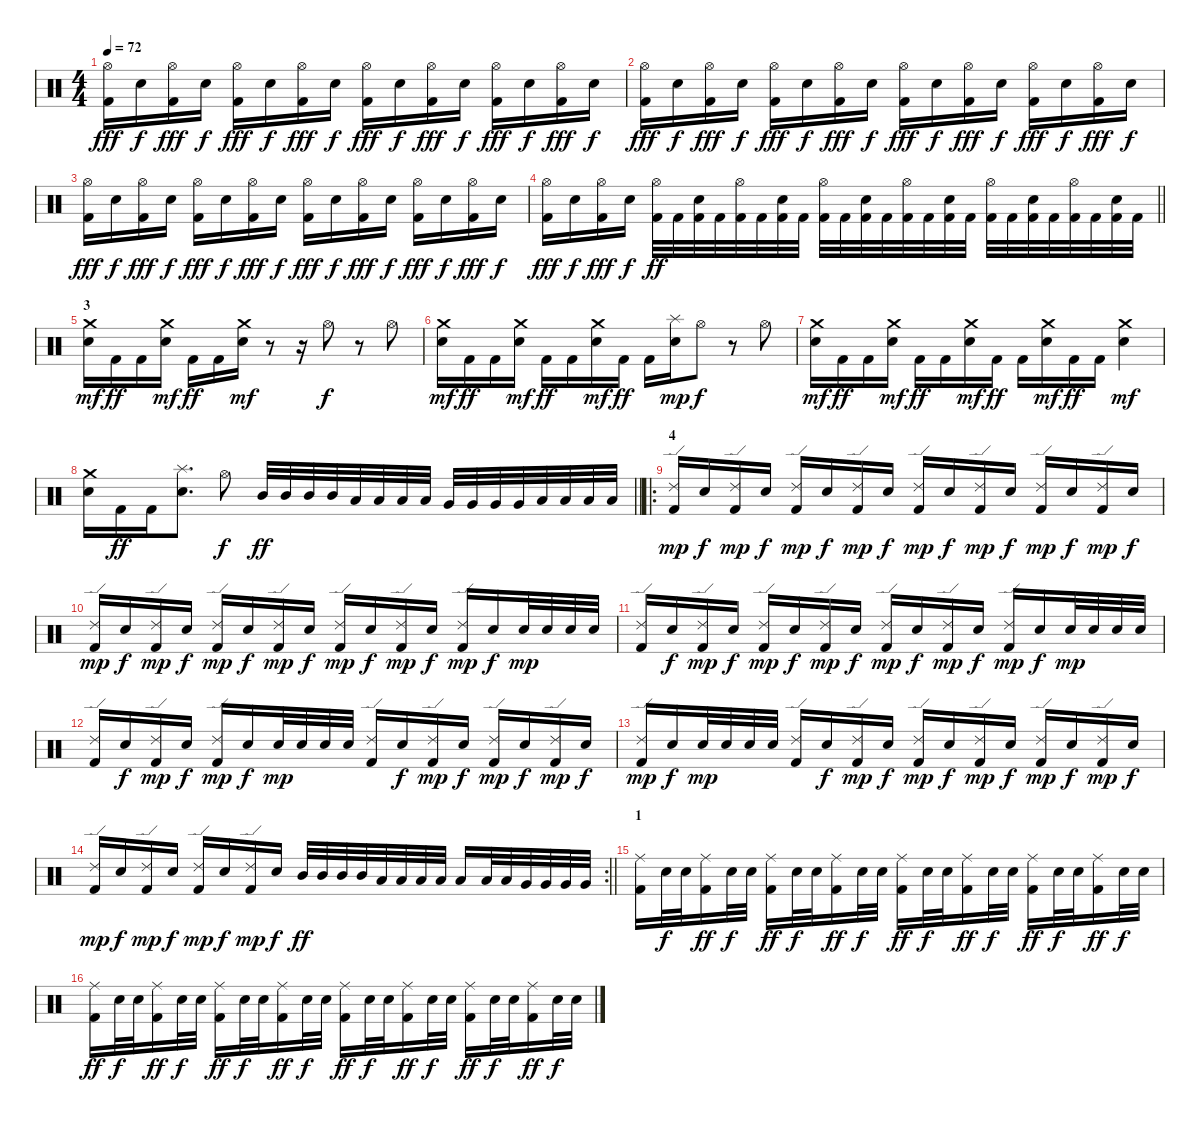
\track "" {instrument percussion}
\staff {score}
\articulation defaults
\ts (4 4)
\tempo 72
\clef neutral
\ks c
("Hi-Hat (open)" "Kick (hit) 2").16{dy fff} "Snare (hit) 2".16{dy f} ("Hi-Hat (open)" "Kick (hit) 2").16{dy fff} "Snare (hit) 2".16{dy f} ("Hi-Hat (open)" "Kick (hit) 2").16{dy fff} "Snare (hit) 2".16{dy f} ("Hi-Hat (open)" "Kick (hit) 2").16{dy fff} "Snare (hit) 2".16{dy f} ("Hi-Hat (open)" "Kick (hit) 2").16{dy fff} "Snare (hit) 2".16{dy f} ("Hi-Hat (open)" "Kick (hit) 2").16{dy fff} "Snare (hit) 2".16{dy f} ("Hi-Hat (open)" "Kick (hit) 2").16{dy fff} "Snare (hit) 2".16{dy f} ("Hi-Hat (open)" "Kick (hit) 2").16{dy fff} "Snare (hit) 2".16{dy f} |
("Hi-Hat (open)" "Kick (hit) 2").16{dy fff} "Snare (hit) 2".16{dy f} ("Hi-Hat (open)" "Kick (hit) 2").16{dy fff} "Snare (hit) 2".16{dy f} ("Hi-Hat (open)" "Kick (hit) 2").16{dy fff} "Snare (hit) 2".16{dy f} ("Hi-Hat (open)" "Kick (hit) 2").16{dy fff} "Snare (hit) 2".16{dy f} ("Hi-Hat (open)" "Kick (hit) 2").16{dy fff} "Snare (hit) 2".16{dy f} ("Hi-Hat (open)" "Kick (hit) 2").16{dy fff} "Snare (hit) 2".16{dy f} ("Hi-Hat (open)" "Kick (hit) 2").16{dy fff} "Snare (hit) 2".16{dy f} ("Hi-Hat (open)" "Kick (hit) 2").16{dy fff} "Snare (hit) 2".16{dy f} |
("Hi-Hat (open)" "Kick (hit) 2").16{dy fff} "Snare (hit) 2".16{dy f} ("Hi-Hat (open)" "Kick (hit) 2").16{dy fff} "Snare (hit) 2".16{dy f} ("Hi-Hat (open)" "Kick (hit) 2").16{dy fff} "Snare (hit) 2".16{dy f} ("Hi-Hat (open)" "Kick (hit) 2").16{dy fff} "Snare (hit) 2".16{dy f} ("Hi-Hat (open)" "Kick (hit) 2").16{dy fff} "Snare (hit) 2".16{dy f} ("Hi-Hat (open)" "Kick (hit) 2").16{dy fff} "Snare (hit) 2".16{dy f} ("Hi-Hat (open)" "Kick (hit) 2").16{dy fff} "Snare (hit) 2".16{dy f} ("Hi-Hat (open)" "Kick (hit) 2").16{dy fff} "Snare (hit) 2".16{dy f} |
\barLineRight lightlight
("Hi-Hat (open)" "Kick (hit) 2").16{dy fff} "Snare (hit) 2".16{dy f} ("Hi-Hat (open)" "Kick (hit) 2").16{dy fff} "Snare (hit) 2".16{dy f} ("Hi-Hat (open)" "Kick (hit) 2").32{dy ff} "Kick (hit) 2".32 ("Snare (hit) 2" "Kick (hit) 2").32 "Kick (hit) 2".32 ("Hi-Hat (open)" "Kick (hit) 2").32 "Kick (hit) 2".32 ("Snare (hit) 2" "Kick (hit) 2").32 "Kick (hit) 2".32 ("Hi-Hat (open)" "Kick (hit) 2").32 "Kick (hit) 2".32 ("Snare (hit) 2" "Kick (hit) 2").32 "Kick (hit) 2".32 ("Hi-Hat (open)" "Kick (hit) 2").32 "Kick (hit) 2".32 ("Snare (hit) 2" "Kick (hit) 2").32 "Kick (hit) 2".32 ("Hi-Hat (open)" "Kick (hit) 2").32 "Kick (hit) 2".32 ("Snare (hit) 2" "Kick (hit) 2").32 "Kick (hit) 2".32 ("Hi-Hat (open)" "Kick (hit) 2").32 "Kick (hit) 2".32 ("Snare (hit) 2" "Kick (hit) 2").32 "Kick (hit) 2".32 |
\section ("" "3")
("Crash medium (hit)" "Snare (hit) 2").16{dy mf} "Kick (hit) 2".16{dy ff} "Kick (hit) 2".16 ("Crash medium (hit)" "Snare (hit) 2").16{dy mf} "Kick (hit) 2".16{dy ff} "Kick (hit) 2".16 ("Crash medium (hit)" "Snare (hit) 2").16{dy mf} r.8 r.16 "Hi-Hat (open)".8{dy f} r.8 "Hi-Hat (open)".8 |
("Crash medium (hit)" "Snare (hit) 2").16{dy mf} "Kick (hit) 2".16{dy ff} "Kick (hit) 2".16 ("Crash medium (hit)" "Snare (hit) 2").16{dy mf} "Kick (hit) 2".16{dy ff} "Kick (hit) 2".16 ("Crash medium (hit)" "Snare (hit) 2").16{dy mf} "Kick (hit) 2".16{dy ff} "Kick (hit) 2".16 ("Splash (hit)" "Snare (hit) 2").16{dy mp} "Hi-Hat (open)".8{dy f} r.8 "Hi-Hat (open)".8 |
("Crash medium (hit)" "Snare (hit) 2").16{dy mf} "Kick (hit) 2".16{dy ff} "Kick (hit) 2".16 ("Crash medium (hit)" "Snare (hit) 2").16{dy mf} "Kick (hit) 2".16{dy ff} "Kick (hit) 2".16 ("Crash medium (hit)" "Snare (hit) 2").16{dy mf} "Kick (hit) 2".16{dy ff} "Kick (hit) 2".16 ("Crash medium (hit)" "Snare (hit) 2").16{dy mf} "Kick (hit) 2".16{dy ff} "Kick (hit) 2".16 ("Crash medium (hit)" "Snare (hit) 2").4{dy mf} |
\barLineRight lightlight
("Crash medium (hit)" "Snare (hit) 2").16 "Kick (hit) 2".16{dy ff} "Kick (hit) 2".16 ("Splash (hit)" "Snare (hit) 2").8{d} "Hi-Hat (open)".8{dy f} "Mid Tom (hit)".32{dy ff} "Mid Tom (hit)".32 "Mid Tom (hit)".32 "Mid Tom (hit)".32 "Low Tom (hit)".32 "Low Tom (hit)".32 "Low Tom (hit)".32 "Low Tom (hit)".32 "Very Low Tom (hit)".32 "Very Low Tom (hit)".32 "Very Low Tom (hit)".32 "Very Low Tom (hit)".32 "Low Floor Tom (hit)".32 "Low Floor Tom (hit)".32 "Low Floor Tom (hit)".32 "Low Floor Tom (hit)".32 |
\ro
\section ("" "4")
("Ride (edge) 2" "Kick (hit) 2").16{dy mp} "Snare (hit) 2".16{dy f} ("Ride (edge) 2" "Kick (hit) 2").16{dy mp} "Snare (hit) 2".16{dy f} ("Ride (edge) 2" "Kick (hit) 2").16{dy mp} "Snare (hit) 2".16{dy f} ("Ride (edge) 2" "Kick (hit) 2").16{dy mp} "Snare (hit) 2".16{dy f} ("Ride (edge) 2" "Kick (hit) 2").16{dy mp} "Snare (hit) 2".16{dy f} ("Ride (edge) 2" "Kick (hit) 2").16{dy mp} "Snare (hit) 2".16{dy f} ("Ride (edge) 2" "Kick (hit) 2").16{dy mp} "Snare (hit) 2".16{dy f} ("Ride (edge) 2" "Kick (hit) 2").16{dy mp} "Snare (hit) 2".16{dy f} |
("Ride (edge) 2" "Kick (hit) 2").16{dy mp} "Snare (hit) 2".16{dy f} ("Ride (edge) 2" "Kick (hit) 2").16{dy mp} "Snare (hit) 2".16{dy f} ("Ride (edge) 2" "Kick (hit) 2").16{dy mp} "Snare (hit) 2".16{dy f} ("Ride (edge) 2" "Kick (hit) 2").16{dy mp} "Snare (hit) 2".16{dy f} ("Ride (edge) 2" "Kick (hit) 2").16{dy mp} "Snare (hit) 2".16{dy f} ("Ride (edge) 2" "Kick (hit) 2").16{dy mp} "Snare (hit) 2".16{dy f} ("Ride (edge) 2" "Kick (hit) 2").16{dy mp} "Snare (hit) 2".16{dy f} "Snare (hit) 2".32{dy mp} "Snare (hit) 2".32 "Snare (hit) 2".32 "Snare (hit) 2".32 |
("Ride (edge) 2" "Kick (hit) 2").16 "Snare (hit) 2".16{dy f} ("Ride (edge) 2" "Kick (hit) 2").16{dy mp} "Snare (hit) 2".16{dy f} ("Ride (edge) 2" "Kick (hit) 2").16{dy mp} "Snare (hit) 2".16{dy f} ("Ride (edge) 2" "Kick (hit) 2").16{dy mp} "Snare (hit) 2".16{dy f} ("Ride (edge) 2" "Kick (hit) 2").16{dy mp} "Snare (hit) 2".16{dy f} ("Ride (edge) 2" "Kick (hit) 2").16{dy mp} "Snare (hit) 2".16{dy f} ("Ride (edge) 2" "Kick (hit) 2").16{dy mp} "Snare (hit) 2".16{dy f} "Snare (hit) 2".32{dy mp} "Snare (hit) 2".32 "Snare (hit) 2".32 "Snare (hit) 2".32 |
("Ride (edge) 2" "Kick (hit) 2").16 "Snare (hit) 2".16{dy f} ("Ride (edge) 2" "Kick (hit) 2").16{dy mp} "Snare (hit) 2".16{dy f} ("Ride (edge) 2" "Kick (hit) 2").16{dy mp} "Snare (hit) 2".16{dy f} "Snare (hit) 2".32{dy mp} "Snare (hit) 2".32 "Snare (hit) 2".32 "Snare (hit) 2".32 ("Ride (edge) 2" "Kick (hit) 2").16 "Snare (hit) 2".16{dy f} ("Ride (edge) 2" "Kick (hit) 2").16{dy mp} "Snare (hit) 2".16{dy f} ("Ride (edge) 2" "Kick (hit) 2").16{dy mp} "Snare (hit) 2".16{dy f} ("Ride (edge) 2" "Kick (hit) 2").16{dy mp} "Snare (hit) 2".16{dy f} |
("Ride (edge) 2" "Kick (hit) 2").16{dy mp} "Snare (hit) 2".16{dy f} "Snare (hit) 2".32{dy mp} "Snare (hit) 2".32 "Snare (hit) 2".32 "Snare (hit) 2".32 ("Ride (edge) 2" "Kick (hit) 2").16 "Snare (hit) 2".16{dy f} ("Ride (edge) 2" "Kick (hit) 2").16{dy mp} "Snare (hit) 2".16{dy f} ("Ride (edge) 2" "Kick (hit) 2").16{dy mp} "Snare (hit) 2".16{dy f} ("Ride (edge) 2" "Kick (hit) 2").16{dy mp} "Snare (hit) 2".16{dy f} ("Ride (edge) 2" "Kick (hit) 2").16{dy mp} "Snare (hit) 2".16{dy f} ("Ride (edge) 2" "Kick (hit) 2").16{dy mp} "Snare (hit) 2".16{dy f} |
\rc 2
\barLineRight lightlight
("Ride (edge) 2" "Kick (hit) 2").16{dy mp} "Snare (hit) 2".16{dy f} ("Ride (edge) 2" "Kick (hit) 2").16{dy mp} "Snare (hit) 2".16{dy f} ("Ride (edge) 2" "Kick (hit) 2").16{dy mp} "Snare (hit) 2".16{dy f} ("Ride (edge) 2" "Kick (hit) 2").16{dy mp} "Snare (hit) 2".16{dy f} "Mid Tom (hit)".32{dy ff} "Mid Tom (hit)".32 "Mid Tom (hit)".32 "Mid Tom (hit)".32 "Low Tom (hit)".32 "Low Tom (hit)".32 "Low Tom (hit)".32 "Low Tom (hit)".32 "Low Tom (hit)".16 "Low Tom (hit)".32 "Low Tom (hit)".32 "Very Low Tom (hit)".32 "Very Low Tom (hit)".32 "Very Low Tom (hit)".32 "Very Low Tom (hit)".32 |
\section ("" "1")
("Ride (middle)" "Kick (hit) 2").16 "Snare (hit) 2".32{dy f} "Snare (hit) 2".32 ("Ride (middle)" "Kick (hit) 2").16{dy ff} "Snare (hit) 2".32{dy f} "Snare (hit) 2".32 ("Ride (middle)" "Kick (hit) 2").16{dy ff} "Snare (hit) 2".32{dy f} "Snare (hit) 2".32 ("Ride (middle)" "Kick (hit) 2").16{dy ff} "Snare (hit) 2".32{dy f} "Snare (hit) 2".32 ("Ride (middle)" "Kick (hit) 2").16{dy ff} "Snare (hit) 2".32{dy f} "Snare (hit) 2".32 ("Ride (middle)" "Kick (hit) 2").16{dy ff} "Snare (hit) 2".32{dy f} "Snare (hit) 2".32 ("Ride (middle)" "Kick (hit) 2").16{dy ff} "Snare (hit) 2".32{dy f} "Snare (hit) 2".32 ("Ride (middle)" "Kick (hit) 2").16{dy ff} "Snare (hit) 2".32{dy f} "Snare (hit) 2".32 |
("Ride (middle)" "Kick (hit) 2").16{dy ff} "Snare (hit) 2".32{dy f} "Snare (hit) 2".32 ("Ride (middle)" "Kick (hit) 2").16{dy ff} "Snare (hit) 2".32{dy f} "Snare (hit) 2".32 ("Ride (middle)" "Kick (hit) 2").16{dy ff} "Snare (hit) 2".32{dy f} "Snare (hit) 2".32 ("Ride (middle)" "Kick (hit) 2").16{dy ff} "Snare (hit) 2".32{dy f} "Snare (hit) 2".32 ("Ride (middle)" "Kick (hit) 2").16{dy ff} "Snare (hit) 2".32{dy f} "Snare (hit) 2".32 ("Ride (middle)" "Kick (hit) 2").16{dy ff} "Snare (hit) 2".32{dy f} "Snare (hit) 2".32 ("Ride (middle)" "Kick (hit) 2").16{dy ff} "Snare (hit) 2".32{dy f} "Snare (hit) 2".32 ("Ride (middle)" "Kick (hit) 2").16{dy ff} "Snare (hit) 2".32{dy f} "Snare (hit) 2".32
